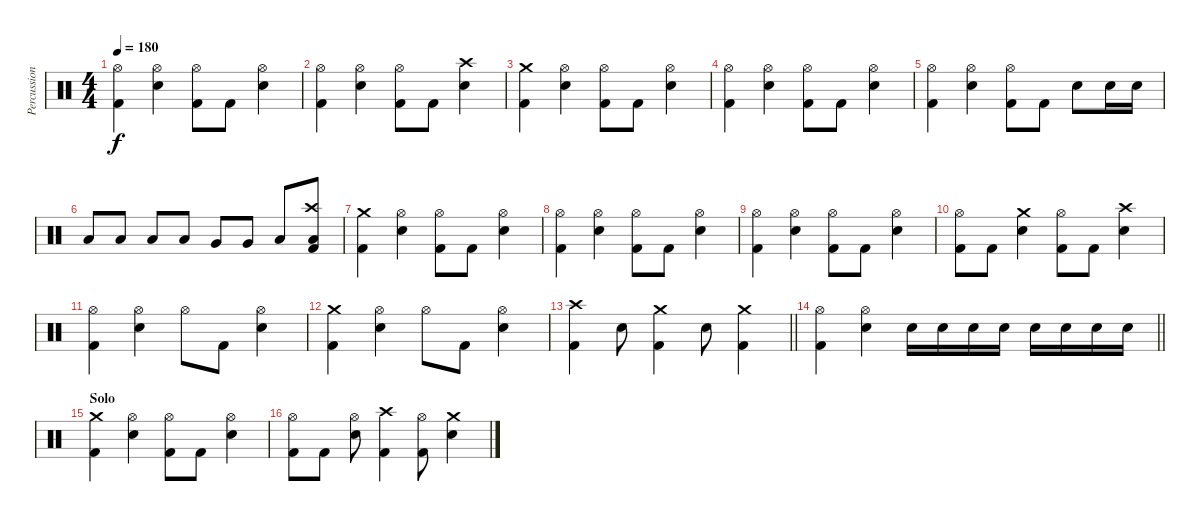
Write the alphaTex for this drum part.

\track ("Percussion" "Percussion") {instrument percussion}
\staff {score}
\articulation defaults
\ts (4 4)
\tempo 180
\clef neutral
\ks c
("Hi-Hat (open)" "Kick (hit) 2").4{dy f} ("Hi-Hat (open)" "Snare (hit) 2").4 ("Hi-Hat (open)" "Kick (hit) 2").8 "Kick (hit) 2".8 ("Hi-Hat (open)" "Snare (hit) 2").4 |
("Hi-Hat (open)" "Kick (hit) 2").4 ("Hi-Hat (open)" "Snare (hit) 2").4 ("Hi-Hat (open)" "Kick (hit) 2").8 "Kick (hit) 2".8 ("Crash high (hit)" "Snare (hit) 2").4 |
("Crash medium (hit)" "Kick (hit) 2").4 ("Hi-Hat (open)" "Snare (hit) 2").4 ("Hi-Hat (open)" "Kick (hit) 2").8 "Kick (hit) 2".8 ("Hi-Hat (open)" "Snare (hit) 2").4 |
("Hi-Hat (open)" "Kick (hit) 2").4 ("Hi-Hat (open)" "Snare (hit) 2").4 ("Hi-Hat (open)" "Kick (hit) 2").8 "Kick (hit) 2".8 ("Hi-Hat (open)" "Snare (hit) 2").4 |
("Hi-Hat (open)" "Kick (hit) 2").4 ("Hi-Hat (open)" "Snare (hit) 2").4 ("Hi-Hat (open)" "Kick (hit) 2").8 "Kick (hit) 2".8 "Snare (hit) 2".8 "Snare (hit) 2".16 "Snare (hit) 2".16 |
"Low Tom (hit)".8 "Low Tom (hit)".8 "Low Tom (hit)".8 "Low Tom (hit)".8 "Very Low Tom (hit)".8 "Very Low Tom (hit)".8 "Low Floor Tom (hit)".8 ("Crash high (hit)" "Low Floor Tom (hit)" "Kick (hit) 2").8 |
("Crash medium (hit)" "Kick (hit) 2").4 ("Hi-Hat (open)" "Snare (hit) 2").4 ("Hi-Hat (open)" "Kick (hit) 2").8 "Kick (hit) 2".8 ("Hi-Hat (open)" "Snare (hit) 2").4 |
("Hi-Hat (open)" "Kick (hit) 2").4 ("Hi-Hat (open)" "Snare (hit) 2").4 ("Hi-Hat (open)" "Kick (hit) 2").8 "Kick (hit) 2".8 ("Hi-Hat (open)" "Snare (hit) 2").4 |
("Hi-Hat (open)" "Kick (hit) 2").4 ("Hi-Hat (open)" "Snare (hit) 2").4 ("Hi-Hat (open)" "Kick (hit) 2").8 "Kick (hit) 2".8 ("Hi-Hat (open)" "Snare (hit) 2").4 |
("Hi-Hat (open)" "Kick (hit) 2").8 "Kick (hit) 2".8 ("Crash medium (hit)" "Snare (hit) 2").4 ("Hi-Hat (open)" "Kick (hit) 2").8 "Kick (hit) 2".8 ("Crash high (hit)" "Snare (hit) 2").4 |
("Hi-Hat (open)" "Kick (hit) 2").4 ("Hi-Hat (open)" "Snare (hit) 2").4 "Hi-Hat (open)".8 "Kick (hit) 2".8 ("Hi-Hat (open)" "Snare (hit) 2").4 |
("Crash medium (hit)" "Kick (hit) 2").4 ("Hi-Hat (open)" "Snare (hit) 2").4 "Hi-Hat (open)".8 "Kick (hit) 2".8 ("Hi-Hat (open)" "Snare (hit) 2").4 |
\barLineRight lightlight
("Crash high (hit)" "Kick (hit) 2").4 "Snare (hit) 2".8 ("Crash medium (hit)" "Kick (hit) 2").4 "Snare (hit) 2".8 ("Crash medium (hit)" "Kick (hit) 2").4 |
\section ("" "")
\barLineRight lightlight
("Hi-Hat (open)" "Kick (hit) 2").4 ("Hi-Hat (open)" "Snare (hit) 2").4 "Snare (hit) 2".16 "Snare (hit) 2".16 "Snare (hit) 2".16 "Snare (hit) 2".16 "Snare (hit) 2".16 "Snare (hit) 2".16 "Snare (hit) 2".16 "Snare (hit) 2".16 |
\section ("" "Solo")
("Crash medium (hit)" "Kick (hit) 2").4 ("Hi-Hat (open)" "Snare (hit) 2").4 ("Hi-Hat (open)" "Kick (hit) 2").8 "Kick (hit) 2".8 ("Hi-Hat (open)" "Snare (hit) 2").4 |
("Hi-Hat (open)" "Kick (hit) 2").8 "Kick (hit) 2".8 ("Hi-Hat (open)" "Snare (hit) 2").8 ("Crash high (hit)" "Kick (hit) 2").4 ("Hi-Hat (open)" "Kick (hit) 2").8 ("Crash medium (hit)" "Snare (hit) 2").4
